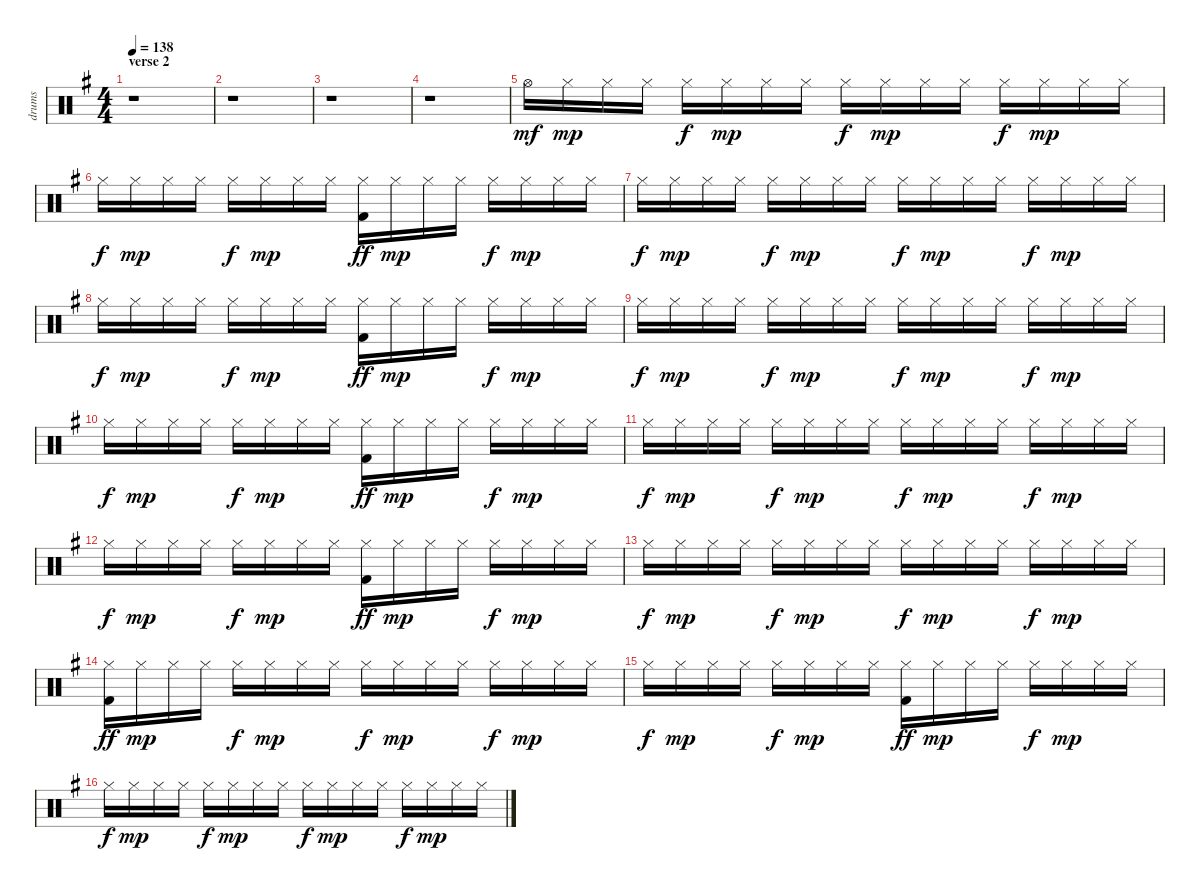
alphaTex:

\track ("drums" "drums") {instrument percussion}
\staff {score}
\articulation defaults
\ts (4 4)
\section ("" "verse 2")
\tempo 138
\clef neutral
\ks eminor
r.1{dy f} |
r.1 |
r.1 |
r.1 |
"Hi-Hat (open)".16{dy mf} "Hi-Hat (closed)".16{dy mp} "Hi-Hat (closed)".16 "Hi-Hat (closed)".16 "Hi-Hat (closed)".16{dy f} "Hi-Hat (closed)".16{dy mp} "Hi-Hat (closed)".16 "Hi-Hat (closed)".16 "Hi-Hat (closed)".16{dy f} "Hi-Hat (closed)".16{dy mp} "Hi-Hat (closed)".16 "Hi-Hat (closed)".16 "Hi-Hat (closed)".16{dy f} "Hi-Hat (closed)".16{dy mp} "Hi-Hat (closed)".16 "Hi-Hat (closed)".16 |
"Hi-Hat (closed)".16{dy f} "Hi-Hat (closed)".16{dy mp} "Hi-Hat (closed)".16 "Hi-Hat (closed)".16 "Hi-Hat (closed)".16{dy f} "Hi-Hat (closed)".16{dy mp} "Hi-Hat (closed)".16 "Hi-Hat (closed)".16 ("Hi-Hat (closed)" "Kick (hit) 2").16{dy ff} "Hi-Hat (closed)".16{dy mp} "Hi-Hat (closed)".16 "Hi-Hat (closed)".16 "Hi-Hat (closed)".16{dy f} "Hi-Hat (closed)".16{dy mp} "Hi-Hat (closed)".16 "Hi-Hat (closed)".16 |
"Hi-Hat (closed)".16{dy f} "Hi-Hat (closed)".16{dy mp} "Hi-Hat (closed)".16 "Hi-Hat (closed)".16 "Hi-Hat (closed)".16{dy f} "Hi-Hat (closed)".16{dy mp} "Hi-Hat (closed)".16 "Hi-Hat (closed)".16 "Hi-Hat (closed)".16{dy f} "Hi-Hat (closed)".16{dy mp} "Hi-Hat (closed)".16 "Hi-Hat (closed)".16 "Hi-Hat (closed)".16{dy f} "Hi-Hat (closed)".16{dy mp} "Hi-Hat (closed)".16 "Hi-Hat (closed)".16 |
"Hi-Hat (closed)".16{dy f} "Hi-Hat (closed)".16{dy mp} "Hi-Hat (closed)".16 "Hi-Hat (closed)".16 "Hi-Hat (closed)".16{dy f} "Hi-Hat (closed)".16{dy mp} "Hi-Hat (closed)".16 "Hi-Hat (closed)".16 ("Hi-Hat (closed)" "Kick (hit) 2").16{dy ff} "Hi-Hat (closed)".16{dy mp} "Hi-Hat (closed)".16 "Hi-Hat (closed)".16 "Hi-Hat (closed)".16{dy f} "Hi-Hat (closed)".16{dy mp} "Hi-Hat (closed)".16 "Hi-Hat (closed)".16 |
"Hi-Hat (closed)".16{dy f} "Hi-Hat (closed)".16{dy mp} "Hi-Hat (closed)".16 "Hi-Hat (closed)".16 "Hi-Hat (closed)".16{dy f} "Hi-Hat (closed)".16{dy mp} "Hi-Hat (closed)".16 "Hi-Hat (closed)".16 "Hi-Hat (closed)".16{dy f} "Hi-Hat (closed)".16{dy mp} "Hi-Hat (closed)".16 "Hi-Hat (closed)".16 "Hi-Hat (closed)".16{dy f} "Hi-Hat (closed)".16{dy mp} "Hi-Hat (closed)".16 "Hi-Hat (closed)".16 |
"Hi-Hat (closed)".16{dy f} "Hi-Hat (closed)".16{dy mp} "Hi-Hat (closed)".16 "Hi-Hat (closed)".16 "Hi-Hat (closed)".16{dy f} "Hi-Hat (closed)".16{dy mp} "Hi-Hat (closed)".16 "Hi-Hat (closed)".16 ("Hi-Hat (closed)" "Kick (hit) 2").16{dy ff} "Hi-Hat (closed)".16{dy mp} "Hi-Hat (closed)".16 "Hi-Hat (closed)".16 "Hi-Hat (closed)".16{dy f} "Hi-Hat (closed)".16{dy mp} "Hi-Hat (closed)".16 "Hi-Hat (closed)".16 |
"Hi-Hat (closed)".16{dy f} "Hi-Hat (closed)".16{dy mp} "Hi-Hat (closed)".16 "Hi-Hat (closed)".16 "Hi-Hat (closed)".16{dy f} "Hi-Hat (closed)".16{dy mp} "Hi-Hat (closed)".16 "Hi-Hat (closed)".16 "Hi-Hat (closed)".16{dy f} "Hi-Hat (closed)".16{dy mp} "Hi-Hat (closed)".16 "Hi-Hat (closed)".16 "Hi-Hat (closed)".16{dy f} "Hi-Hat (closed)".16{dy mp} "Hi-Hat (closed)".16 "Hi-Hat (closed)".16 |
"Hi-Hat (closed)".16{dy f} "Hi-Hat (closed)".16{dy mp} "Hi-Hat (closed)".16 "Hi-Hat (closed)".16 "Hi-Hat (closed)".16{dy f} "Hi-Hat (closed)".16{dy mp} "Hi-Hat (closed)".16 "Hi-Hat (closed)".16 ("Hi-Hat (closed)" "Kick (hit) 2").16{dy ff} "Hi-Hat (closed)".16{dy mp} "Hi-Hat (closed)".16 "Hi-Hat (closed)".16 "Hi-Hat (closed)".16{dy f} "Hi-Hat (closed)".16{dy mp} "Hi-Hat (closed)".16 "Hi-Hat (closed)".16 |
"Hi-Hat (closed)".16{dy f} "Hi-Hat (closed)".16{dy mp} "Hi-Hat (closed)".16 "Hi-Hat (closed)".16 "Hi-Hat (closed)".16{dy f} "Hi-Hat (closed)".16{dy mp} "Hi-Hat (closed)".16 "Hi-Hat (closed)".16 "Hi-Hat (closed)".16{dy f} "Hi-Hat (closed)".16{dy mp} "Hi-Hat (closed)".16 "Hi-Hat (closed)".16 "Hi-Hat (closed)".16{dy f} "Hi-Hat (closed)".16{dy mp} "Hi-Hat (closed)".16 "Hi-Hat (closed)".16 |
("Hi-Hat (closed)" "Kick (hit) 2").16{dy ff} "Hi-Hat (closed)".16{dy mp} "Hi-Hat (closed)".16 "Hi-Hat (closed)".16 "Hi-Hat (closed)".16{dy f} "Hi-Hat (closed)".16{dy mp} "Hi-Hat (closed)".16 "Hi-Hat (closed)".16 "Hi-Hat (closed)".16{dy f} "Hi-Hat (closed)".16{dy mp} "Hi-Hat (closed)".16 "Hi-Hat (closed)".16 "Hi-Hat (closed)".16{dy f} "Hi-Hat (closed)".16{dy mp} "Hi-Hat (closed)".16 "Hi-Hat (closed)".16 |
"Hi-Hat (closed)".16{dy f} "Hi-Hat (closed)".16{dy mp} "Hi-Hat (closed)".16 "Hi-Hat (closed)".16 "Hi-Hat (closed)".16{dy f} "Hi-Hat (closed)".16{dy mp} "Hi-Hat (closed)".16 "Hi-Hat (closed)".16 ("Hi-Hat (closed)" "Kick (hit) 2").16{dy ff} "Hi-Hat (closed)".16{dy mp} "Hi-Hat (closed)".16 "Hi-Hat (closed)".16 "Hi-Hat (closed)".16{dy f} "Hi-Hat (closed)".16{dy mp} "Hi-Hat (closed)".16 "Hi-Hat (closed)".16 |
"Hi-Hat (closed)".16{dy f} "Hi-Hat (closed)".16{dy mp} "Hi-Hat (closed)".16 "Hi-Hat (closed)".16 "Hi-Hat (closed)".16{dy f} "Hi-Hat (closed)".16{dy mp} "Hi-Hat (closed)".16 "Hi-Hat (closed)".16 "Hi-Hat (closed)".16{dy f} "Hi-Hat (closed)".16{dy mp} "Hi-Hat (closed)".16 "Hi-Hat (closed)".16 "Hi-Hat (closed)".16{dy f} "Hi-Hat (closed)".16{dy mp} "Hi-Hat (closed)".16 "Hi-Hat (closed)".16
